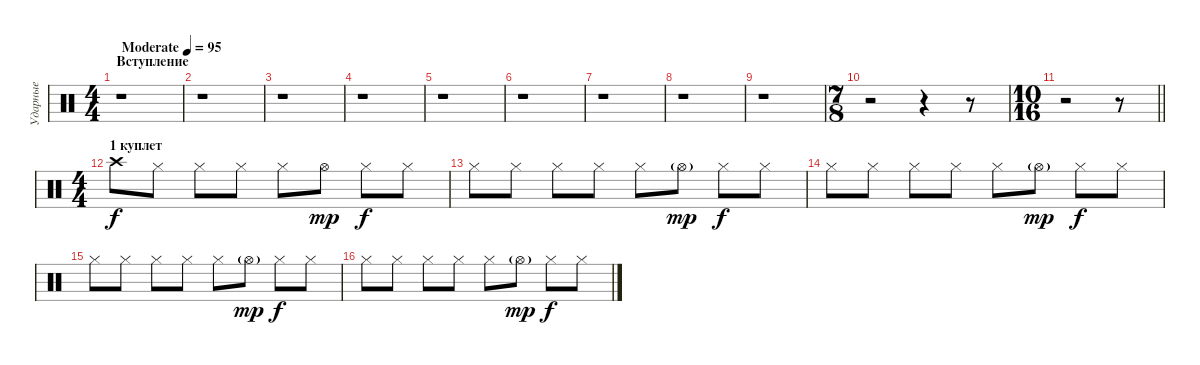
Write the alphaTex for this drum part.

\track ("Ударные" "Ударные") {instrument percussion}
\staff {score}
\articulation defaults
\ts (4 4)
\section ("" "Вступление")
\tempo (95 "Moderate")
\clef neutral
\ks c
r.1{dy f} |
r.1 |
r.1 |
r.1 |
r.1 |
r.1 |
r.1 |
r.1 |
r.1 |
\ts (7 8)
r.2 r.4 r.8 |
\ts (10 16)
\barLineRight lightlight
r.2 r.8 |
\ts (4 4)
\section ("" "1 куплет")
"Crash high (hit)".8 "Hi-Hat (closed)".8 "Hi-Hat (closed)".8 "Hi-Hat (closed)".8 "Hi-Hat (closed)".8 "Hi-Hat (open)".8{dy mp} "Hi-Hat (closed)".8{dy f} "Hi-Hat (closed)".8 |
"Hi-Hat (closed)".8 "Hi-Hat (closed)".8 "Hi-Hat (closed)".8 "Hi-Hat (closed)".8 "Hi-Hat (closed)".8 "Hi-Hat (open)"{g}.8{dy mp} "Hi-Hat (closed)".8{dy f} "Hi-Hat (closed)".8 |
"Hi-Hat (closed)".8 "Hi-Hat (closed)".8 "Hi-Hat (closed)".8 "Hi-Hat (closed)".8 "Hi-Hat (closed)".8 "Hi-Hat (open)"{g}.8{dy mp} "Hi-Hat (closed)".8{dy f} "Hi-Hat (closed)".8 |
"Hi-Hat (closed)".8 "Hi-Hat (closed)".8 "Hi-Hat (closed)".8 "Hi-Hat (closed)".8 "Hi-Hat (closed)".8 "Hi-Hat (open)"{g}.8{dy mp} "Hi-Hat (closed)".8{dy f} "Hi-Hat (closed)".8 |
"Hi-Hat (closed)".8 "Hi-Hat (closed)".8 "Hi-Hat (closed)".8 "Hi-Hat (closed)".8 "Hi-Hat (closed)".8 "Hi-Hat (open)"{g}.8{dy mp} "Hi-Hat (closed)".8{dy f} "Hi-Hat (closed)".8
